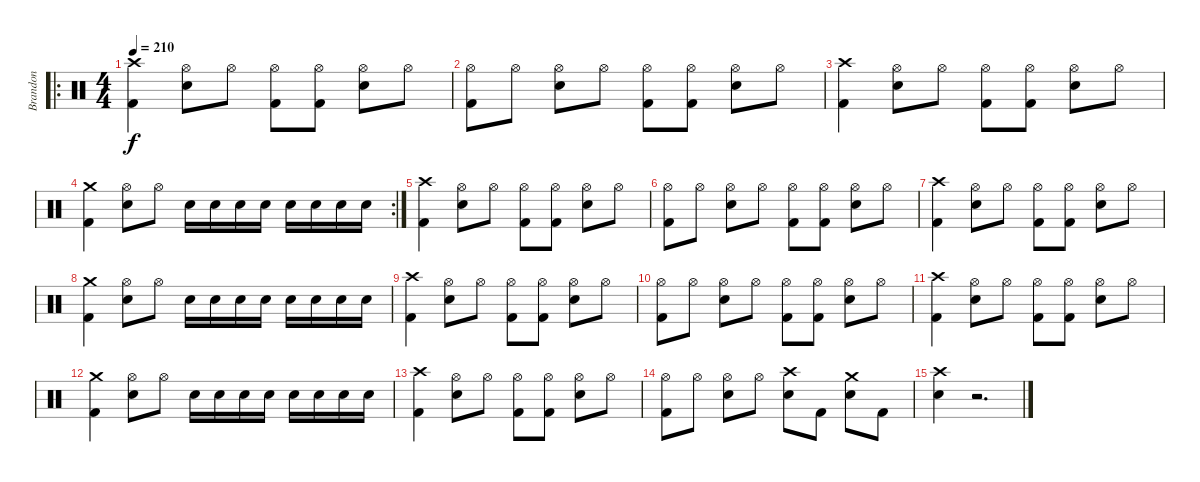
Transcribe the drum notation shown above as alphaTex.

\track ("Brandon" "Brandon") {instrument percussion}
\staff {score}
\articulation defaults
\ro
\ts (4 4)
\tempo 210
\clef neutral
\ks c
("Kick (hit) 2" "Crash high (hit)").4{dy f} ("Snare (hit) 2" "Hi-Hat (open)").8 "Hi-Hat (open)".8 ("Kick (hit) 2" "Hi-Hat (open)").8 ("Kick (hit) 2" "Hi-Hat (open)").8 ("Snare (hit) 2" "Hi-Hat (open)").8 "Hi-Hat (open)".8 |
("Hi-Hat (open)" "Kick (hit) 2").8 "Hi-Hat (open)".8 ("Snare (hit) 2" "Hi-Hat (open)").8 "Hi-Hat (open)".8 ("Kick (hit) 2" "Hi-Hat (open)").8 ("Kick (hit) 2" "Hi-Hat (open)").8 ("Snare (hit) 2" "Hi-Hat (open)").8 "Hi-Hat (open)".8 |
("Kick (hit) 2" "Crash high (hit)").4 ("Snare (hit) 2" "Hi-Hat (open)").8 "Hi-Hat (open)".8 ("Kick (hit) 2" "Hi-Hat (open)").8 ("Kick (hit) 2" "Hi-Hat (open)").8 ("Snare (hit) 2" "Hi-Hat (open)").8 "Hi-Hat (open)".8 |
\rc 2
("Kick (hit) 2" "Crash medium (hit)").4 ("Snare (hit) 2" "Hi-Hat (open)").8 "Hi-Hat (open)".8 "Snare (hit) 2".16 "Snare (hit) 2".16 "Snare (hit) 2".16 "Snare (hit) 2".16 "Snare (hit) 2".16 "Snare (hit) 2".16 "Snare (hit) 2".16 "Snare (hit) 2".16 |
("Kick (hit) 2" "Crash high (hit)").4 ("Snare (hit) 2" "Hi-Hat (open)").8 "Hi-Hat (open)".8 ("Kick (hit) 2" "Hi-Hat (open)").8 ("Kick (hit) 2" "Hi-Hat (open)").8 ("Snare (hit) 2" "Hi-Hat (open)").8 "Hi-Hat (open)".8 |
("Hi-Hat (open)" "Kick (hit) 2").8 "Hi-Hat (open)".8 ("Snare (hit) 2" "Hi-Hat (open)").8 "Hi-Hat (open)".8 ("Kick (hit) 2" "Hi-Hat (open)").8 ("Kick (hit) 2" "Hi-Hat (open)").8 ("Snare (hit) 2" "Hi-Hat (open)").8 "Hi-Hat (open)".8 |
("Kick (hit) 2" "Crash high (hit)").4 ("Snare (hit) 2" "Hi-Hat (open)").8 "Hi-Hat (open)".8 ("Kick (hit) 2" "Hi-Hat (open)").8 ("Kick (hit) 2" "Hi-Hat (open)").8 ("Snare (hit) 2" "Hi-Hat (open)").8 "Hi-Hat (open)".8 |
("Kick (hit) 2" "Crash medium (hit)").4 ("Snare (hit) 2" "Hi-Hat (open)").8 "Hi-Hat (open)".8 "Snare (hit) 2".16 "Snare (hit) 2".16 "Snare (hit) 2".16 "Snare (hit) 2".16 "Snare (hit) 2".16 "Snare (hit) 2".16 "Snare (hit) 2".16 "Snare (hit) 2".16 |
("Kick (hit) 2" "Crash high (hit)").4 ("Snare (hit) 2" "Hi-Hat (open)").8 "Hi-Hat (open)".8 ("Kick (hit) 2" "Hi-Hat (open)").8 ("Kick (hit) 2" "Hi-Hat (open)").8 ("Snare (hit) 2" "Hi-Hat (open)").8 "Hi-Hat (open)".8 |
("Hi-Hat (open)" "Kick (hit) 2").8 "Hi-Hat (open)".8 ("Snare (hit) 2" "Hi-Hat (open)").8 "Hi-Hat (open)".8 ("Kick (hit) 2" "Hi-Hat (open)").8 ("Kick (hit) 2" "Hi-Hat (open)").8 ("Snare (hit) 2" "Hi-Hat (open)").8 "Hi-Hat (open)".8 |
("Kick (hit) 2" "Crash high (hit)").4 ("Snare (hit) 2" "Hi-Hat (open)").8 "Hi-Hat (open)".8 ("Kick (hit) 2" "Hi-Hat (open)").8 ("Kick (hit) 2" "Hi-Hat (open)").8 ("Snare (hit) 2" "Hi-Hat (open)").8 "Hi-Hat (open)".8 |
("Kick (hit) 2" "Crash medium (hit)").4 ("Snare (hit) 2" "Hi-Hat (open)").8 "Hi-Hat (open)".8 "Snare (hit) 2".16 "Snare (hit) 2".16 "Snare (hit) 2".16 "Snare (hit) 2".16 "Snare (hit) 2".16 "Snare (hit) 2".16 "Snare (hit) 2".16 "Snare (hit) 2".16 |
("Kick (hit) 2" "Crash high (hit)").4 ("Snare (hit) 2" "Hi-Hat (open)").8 "Hi-Hat (open)".8 ("Kick (hit) 2" "Hi-Hat (open)").8 ("Kick (hit) 2" "Hi-Hat (open)").8 ("Snare (hit) 2" "Hi-Hat (open)").8 "Hi-Hat (open)".8 |
("Hi-Hat (open)" "Kick (hit) 2").8 "Hi-Hat (open)".8 ("Snare (hit) 2" "Hi-Hat (open)").8 "Hi-Hat (open)".8 ("Snare (hit) 2" "Crash high (hit)").8 "Kick (hit) 2".8 ("Snare (hit) 2" "Crash medium (hit)").8 "Kick (hit) 2".8 |
("Snare (hit) 2" "Crash high (hit)").4 r.2{d}
